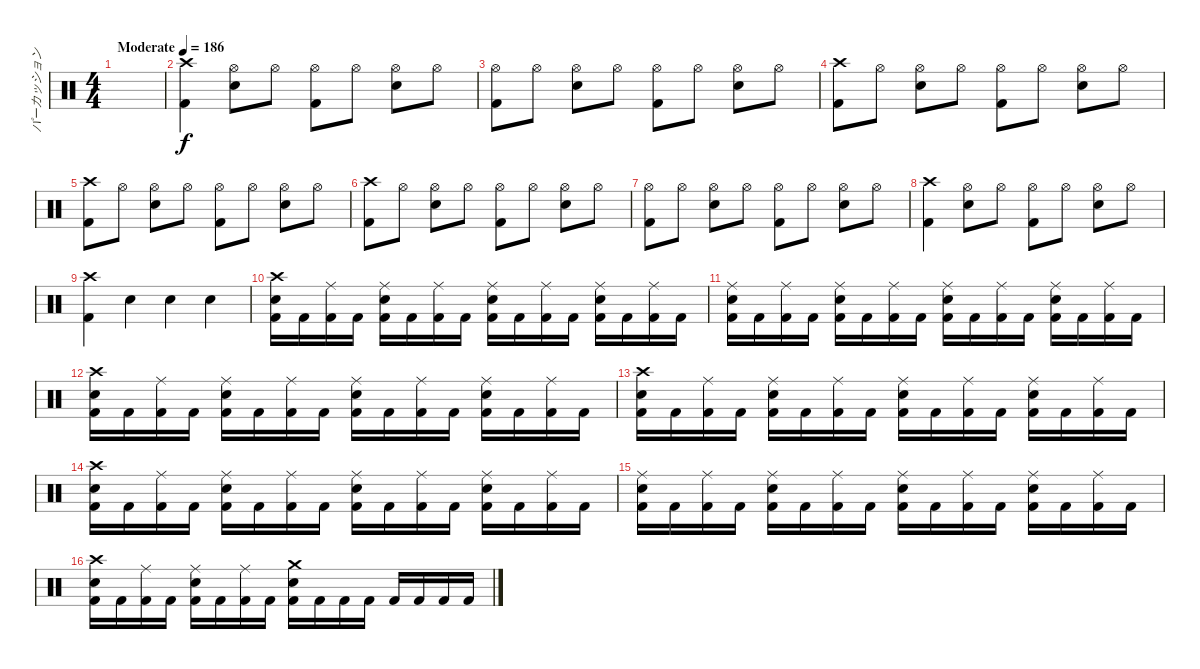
\track ("パーカッション" "パーカッション") {instrument percussion}
\staff {score}
\articulation defaults
\ts (4 4)
\tempo (186 "Moderate")
\clef neutral
\ks c
|
("Crash high (hit)" "Kick (hit) 2").4 ("Hi-Hat (open)" "Snare (hit) 2").8 "Hi-Hat (open)".8 ("Hi-Hat (open)" "Kick (hit) 2").8 "Hi-Hat (open)".8 ("Hi-Hat (open)" "Snare (hit) 2").8 "Hi-Hat (open)".8 |
("Hi-Hat (open)" "Kick (hit) 2").8 "Hi-Hat (open)".8 ("Hi-Hat (open)" "Snare (hit) 2").8 "Hi-Hat (open)".8 ("Hi-Hat (open)" "Kick (hit) 2").8 "Hi-Hat (open)".8 ("Hi-Hat (open)" "Snare (hit) 2").8 "Hi-Hat (open)".8 |
("Crash high (hit)" "Kick (hit) 2").8 "Hi-Hat (open)".8 ("Hi-Hat (open)" "Snare (hit) 2").8 "Hi-Hat (open)".8 ("Hi-Hat (open)" "Kick (hit) 2").8 "Hi-Hat (open)".8 ("Hi-Hat (open)" "Snare (hit) 2").8 "Hi-Hat (open)".8 |
("Crash high (hit)" "Kick (hit) 2").8 "Hi-Hat (open)".8 ("Hi-Hat (open)" "Snare (hit) 2").8 "Hi-Hat (open)".8 ("Hi-Hat (open)" "Kick (hit) 2").8 "Hi-Hat (open)".8 ("Hi-Hat (open)" "Snare (hit) 2").8 "Hi-Hat (open)".8 |
("Crash high (hit)" "Kick (hit) 2").8 "Hi-Hat (open)".8 ("Hi-Hat (open)" "Snare (hit) 2").8 "Hi-Hat (open)".8 ("Hi-Hat (open)" "Kick (hit) 2").8 "Hi-Hat (open)".8 ("Hi-Hat (open)" "Snare (hit) 2").8 "Hi-Hat (open)".8 |
("Hi-Hat (open)" "Kick (hit) 2").8 "Hi-Hat (open)".8 ("Hi-Hat (open)" "Snare (hit) 2").8 "Hi-Hat (open)".8 ("Hi-Hat (open)" "Kick (hit) 2").8 "Hi-Hat (open)".8 ("Hi-Hat (open)" "Snare (hit) 2").8 "Hi-Hat (open)".8 |
("Crash high (hit)" "Kick (hit) 2").4 ("Hi-Hat (open)" "Snare (hit) 2").8 "Hi-Hat (open)".8 ("Hi-Hat (open)" "Kick (hit) 2").8 "Hi-Hat (open)".8 ("Hi-Hat (open)" "Snare (hit) 2").8 "Hi-Hat (open)".8 |
("Crash high (hit)" "Kick (hit) 2").4 "Snare (hit) 2".4 "Snare (hit) 2".4 "Snare (hit) 2".4 |
("Crash high (hit)" "Snare (hit) 2" "Kick (hit) 2").16 "Kick (hit) 2".16 ("Ride (middle)" "Kick (hit) 2").16 "Kick (hit) 2".16 ("Ride (middle)" "Snare (hit) 2" "Kick (hit) 2").16 "Kick (hit) 2".16 ("Ride (middle)" "Kick (hit) 2").16 "Kick (hit) 2".16 ("Ride (middle)" "Snare (hit) 2" "Kick (hit) 2").16 "Kick (hit) 2".16 ("Ride (middle)" "Kick (hit) 2").16 "Kick (hit) 2".16 ("Ride (middle)" "Snare (hit) 2" "Kick (hit) 2").16 "Kick (hit) 2".16 ("Ride (middle)" "Kick (hit) 2").16 "Kick (hit) 2".16 |
("Ride (middle)" "Snare (hit) 2" "Kick (hit) 2").16 "Kick (hit) 2".16 ("Ride (middle)" "Kick (hit) 2").16 "Kick (hit) 2".16 ("Ride (middle)" "Snare (hit) 2" "Kick (hit) 2").16 "Kick (hit) 2".16 ("Ride (middle)" "Kick (hit) 2").16 "Kick (hit) 2".16 ("Ride (middle)" "Snare (hit) 2" "Kick (hit) 2").16 "Kick (hit) 2".16 ("Ride (middle)" "Kick (hit) 2").16 "Kick (hit) 2".16 ("Ride (middle)" "Snare (hit) 2" "Kick (hit) 2").16 "Kick (hit) 2".16 ("Ride (middle)" "Kick (hit) 2").16 "Kick (hit) 2".16 |
("Crash high (hit)" "Snare (hit) 2" "Kick (hit) 2").16 "Kick (hit) 2".16 ("Ride (middle)" "Kick (hit) 2").16 "Kick (hit) 2".16 ("Ride (middle)" "Snare (hit) 2" "Kick (hit) 2").16 "Kick (hit) 2".16 ("Ride (middle)" "Kick (hit) 2").16 "Kick (hit) 2".16 ("Ride (middle)" "Snare (hit) 2" "Kick (hit) 2").16 "Kick (hit) 2".16 ("Ride (middle)" "Kick (hit) 2").16 "Kick (hit) 2".16 ("Ride (middle)" "Snare (hit) 2" "Kick (hit) 2").16 "Kick (hit) 2".16 ("Ride (middle)" "Kick (hit) 2").16 "Kick (hit) 2".16 |
("Crash high (hit)" "Snare (hit) 2" "Kick (hit) 2").16 "Kick (hit) 2".16 ("Ride (middle)" "Kick (hit) 2").16 "Kick (hit) 2".16 ("Ride (middle)" "Snare (hit) 2" "Kick (hit) 2").16 "Kick (hit) 2".16 ("Ride (middle)" "Kick (hit) 2").16 "Kick (hit) 2".16 ("Ride (middle)" "Snare (hit) 2" "Kick (hit) 2").16 "Kick (hit) 2".16 ("Ride (middle)" "Kick (hit) 2").16 "Kick (hit) 2".16 ("Ride (middle)" "Snare (hit) 2" "Kick (hit) 2").16 "Kick (hit) 2".16 ("Ride (middle)" "Kick (hit) 2").16 "Kick (hit) 2".16 |
("Crash high (hit)" "Snare (hit) 2" "Kick (hit) 2").16 "Kick (hit) 2".16 ("Ride (middle)" "Kick (hit) 2").16 "Kick (hit) 2".16 ("Ride (middle)" "Snare (hit) 2" "Kick (hit) 2").16 "Kick (hit) 2".16 ("Ride (middle)" "Kick (hit) 2").16 "Kick (hit) 2".16 ("Ride (middle)" "Snare (hit) 2" "Kick (hit) 2").16 "Kick (hit) 2".16 ("Ride (middle)" "Kick (hit) 2").16 "Kick (hit) 2".16 ("Ride (middle)" "Snare (hit) 2" "Kick (hit) 2").16 "Kick (hit) 2".16 ("Ride (middle)" "Kick (hit) 2").16 "Kick (hit) 2".16 |
("Ride (middle)" "Snare (hit) 2" "Kick (hit) 2").16 "Kick (hit) 2".16 ("Ride (middle)" "Kick (hit) 2").16 "Kick (hit) 2".16 ("Ride (middle)" "Snare (hit) 2" "Kick (hit) 2").16 "Kick (hit) 2".16 ("Ride (middle)" "Kick (hit) 2").16 "Kick (hit) 2".16 ("Ride (middle)" "Snare (hit) 2" "Kick (hit) 2").16 "Kick (hit) 2".16 ("Ride (middle)" "Kick (hit) 2").16 "Kick (hit) 2".16 ("Ride (middle)" "Snare (hit) 2" "Kick (hit) 2").16 "Kick (hit) 2".16 ("Ride (middle)" "Kick (hit) 2").16 "Kick (hit) 2".16 |
("Crash high (hit)" "Snare (hit) 2" "Kick (hit) 2").16 "Kick (hit) 2".16 ("Ride (middle)" "Kick (hit) 2").16 "Kick (hit) 2".16 ("Ride (middle)" "Snare (hit) 2" "Kick (hit) 2").16 "Kick (hit) 2".16 ("Ride (middle)" "Kick (hit) 2").16 "Kick (hit) 2".16 ("Crash medium (hit)" "Snare (hit) 2" "Kick (hit) 2").16 "Kick (hit) 2".16 "Kick (hit) 2".16 "Kick (hit) 2".16 "Kick (hit) 2".16 "Kick (hit) 2".16 "Kick (hit) 2".16 "Kick (hit) 2".16
